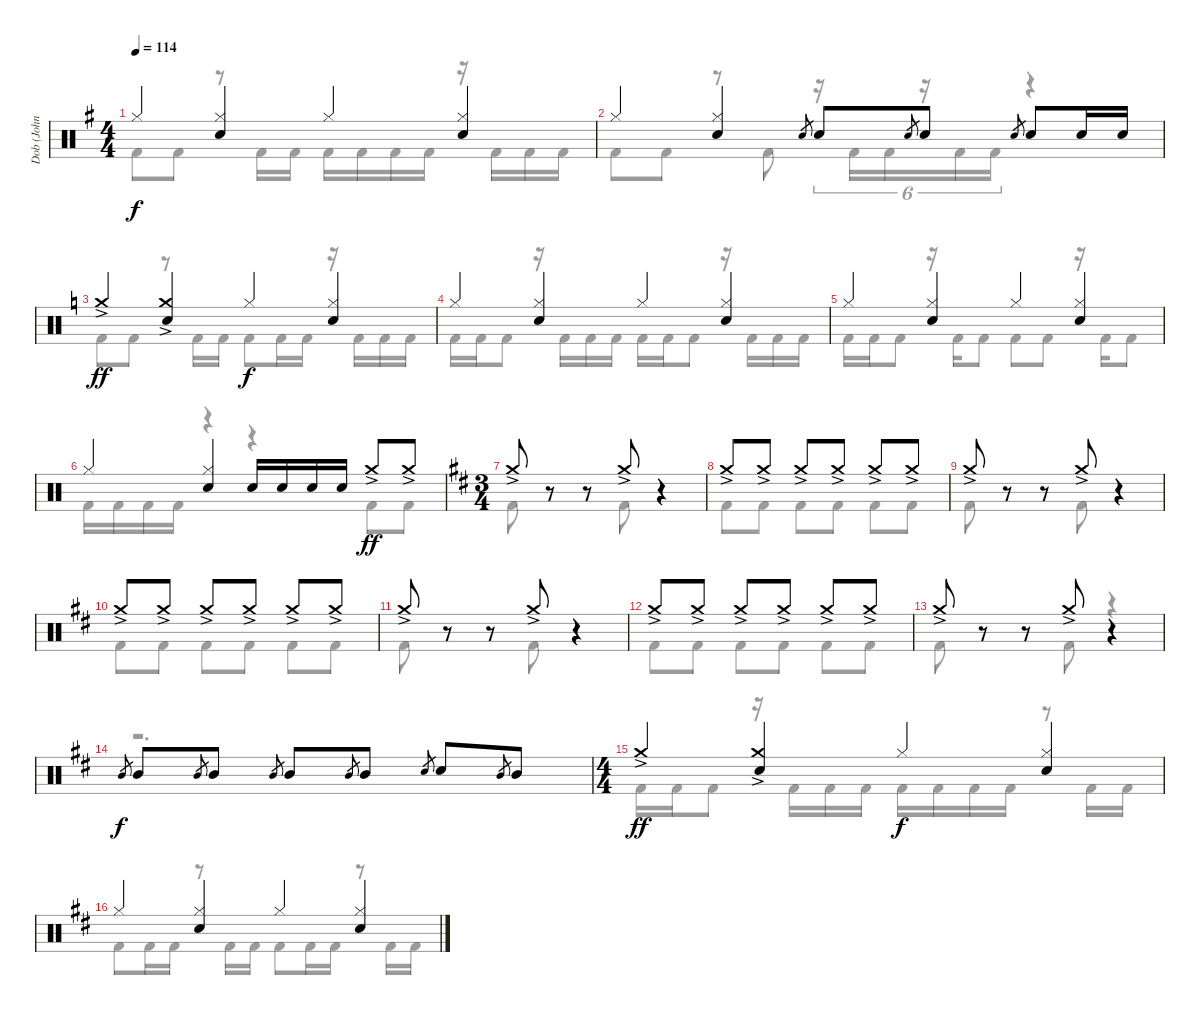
\track ("Dob (John Macaluso)" "Dob (John ") {instrument percussion}
\staff {score}
\articulation defaults
\voice
\ts (4 4)
\tempo 114
\clef neutral
\ks g "Hi-Hat (closed)".4{dy f}
("Hi-Hat (closed)" "Electric Snare (hit)").4 "Hi-Hat (closed)".4 ("Hi-Hat (closed)" "Electric Snare (hit)").4 |
"Hi-Hat (closed)".4 ("Hi-Hat (closed)" "Electric Snare (hit)").4 "Electric Snare (hit)".8{gr} "Electric Snare (hit)".8 "Electric Snare (hit)".8{gr} "Electric Snare (hit)".8 "Electric Snare (hit)".8{gr} "Electric Snare (hit)".8 "Electric Snare (hit)".16 "Electric Snare (hit)".16 |
\ks c "Crash medium (hit)"{ac}.4{dy ff}
("Crash medium (hit)"{ac} "Electric Snare (hit)").4 "Hi-Hat (closed)".4{dy f} ("Hi-Hat (closed)" "Electric Snare (hit)").4 |
"Hi-Hat (closed)".4 ("Hi-Hat (closed)" "Electric Snare (hit)").4 "Hi-Hat (closed)".4 ("Hi-Hat (closed)" "Electric Snare (hit)").4 |
"Hi-Hat (closed)".4 ("Hi-Hat (closed)" "Electric Snare (hit)").4 "Hi-Hat (closed)".4 ("Hi-Hat (closed)" "Electric Snare (hit)").4 |
"Hi-Hat (closed)".4 ("Hi-Hat (closed)" "Electric Snare (hit)").4 "Electric Snare (hit)".16 "Electric Snare (hit)".16 "Electric Snare (hit)".16 "Electric Snare (hit)".16 "Crash medium (hit)"{ac}.8{dy ff} "Crash medium (hit)"{ac}.8 |
\ts (3 4)
\ks d "Crash medium (hit)"{ac}.8
r.8 r.8 "Crash medium (hit)"{ac}.8 r.4 |
"Crash medium (hit)"{ac}.8 "Crash medium (hit)"{ac}.8 "Crash medium (hit)"{ac}.8 "Crash medium (hit)"{ac}.8 "Crash medium (hit)"{ac}.8 "Crash medium (hit)"{ac}.8 |
"Crash medium (hit)"{ac}.8 r.8 r.8 "Crash medium (hit)"{ac}.8 r.4 |
"Crash medium (hit)"{ac}.8 "Crash medium (hit)"{ac}.8 "Crash medium (hit)"{ac}.8 "Crash medium (hit)"{ac}.8 "Crash medium (hit)"{ac}.8 "Crash medium (hit)"{ac}.8 |
"Crash medium (hit)"{ac}.8 r.8 r.8 "Crash medium (hit)"{ac}.8 r.4 |
"Crash medium (hit)"{ac}.8 "Crash medium (hit)"{ac}.8 "Crash medium (hit)"{ac}.8 "Crash medium (hit)"{ac}.8 "Crash medium (hit)"{ac}.8 "Crash medium (hit)"{ac}.8 |
"Crash medium (hit)"{ac}.8 r.8 r.8 "Crash medium (hit)"{ac}.8 r.4 |
"Mid Tom (hit)".8{gr dy f} "Mid Tom (hit)".8 "Mid Tom (hit)".8{gr} "Mid Tom (hit)".8 "Mid Tom (hit)".8{gr} "Mid Tom (hit)".8 "Mid Tom (hit)".8{gr} "Mid Tom (hit)".8 "Electric Snare (hit)".8{gr} "Electric Snare (hit)".8 "Mid Tom (hit)".8{gr} "Mid Tom (hit)".8 |
\ts (4 4)
"Crash medium (hit)"{ac}.4{dy ff} ("Crash medium (hit)"{ac} "Electric Snare (hit)").4 "Hi-Hat (closed)".4{dy f} ("Hi-Hat (closed)" "Electric Snare (hit)").4 |
"Hi-Hat (closed)".4 ("Hi-Hat (closed)" "Electric Snare (hit)").4 "Hi-Hat (closed)".4 ("Hi-Hat (closed)" "Electric Snare (hit)").4
\voice
\clef neutral
\ottava regular
\simile none
\ks g "Kick (hit) 2".8{dy f} "Kick (hit) 2".8
r.8 "Kick (hit) 2".16 "Kick (hit) 2".16 "Kick (hit) 2".16 "Kick (hit) 2".16 "Kick (hit) 2".16 "Kick (hit) 2".16 r.16 "Kick (hit) 2".16 "Kick (hit) 2".16 "Kick (hit) 2".16 |
"Kick (hit) 2".8 "Kick (hit) 2".8 r.8 "Kick (hit) 2".8 r.16{tu (6 4)} "Kick (hit) 2".16{tu (6 4)} "Kick (hit) 2".16{tu (6 4)} r.16{tu (6 4)} "Kick (hit) 2".16{tu (6 4)} "Kick (hit) 2".16{tu (6 4)} r.4 |
\ks c "Kick (hit) 2".8 "Kick (hit) 2".8
r.8 "Kick (hit) 2".16 "Kick (hit) 2".16 "Kick (hit) 2".8 "Kick (hit) 2".16 "Kick (hit) 2".16 r.16 "Kick (hit) 2".16 "Kick (hit) 2".16 "Kick (hit) 2".16 |
"Kick (hit) 2".16 "Kick (hit) 2".16 "Kick (hit) 2".8 r.16 "Kick (hit) 2".16 "Kick (hit) 2".16 "Kick (hit) 2".16 "Kick (hit) 2".16 "Kick (hit) 2".16 "Kick (hit) 2".8 r.16 "Kick (hit) 2".16 "Kick (hit) 2".16 "Kick (hit) 2".16 |
"Kick (hit) 2".16 "Kick (hit) 2".16 "Kick (hit) 2".8 r.16 "Kick (hit) 2".16 "Kick (hit) 2".8 "Kick (hit) 2".8 "Kick (hit) 2".8 r.16 "Kick (hit) 2".16 "Kick (hit) 2".8 |
"Kick (hit) 2".16 "Kick (hit) 2".16 "Kick (hit) 2".16 "Kick (hit) 2".16 r.4 r.4 "Kick (hit) 2".8 "Kick (hit) 2".8 |
\ks d "Kick (hit) 2".8
r.8 r.8 "Kick (hit) 2".8 r.4 |
"Kick (hit) 2".8 "Kick (hit) 2".8 "Kick (hit) 2".8 "Kick (hit) 2".8 "Kick (hit) 2".8 "Kick (hit) 2".8 |
"Kick (hit) 2".8 r.8 r.8 "Kick (hit) 2".8 r.4 |
"Kick (hit) 2".8 "Kick (hit) 2".8 "Kick (hit) 2".8 "Kick (hit) 2".8 "Kick (hit) 2".8 "Kick (hit) 2".8 |
"Kick (hit) 2".8 r.8 r.8 "Kick (hit) 2".8 r.4 |
"Kick (hit) 2".8 "Kick (hit) 2".8 "Kick (hit) 2".8 "Kick (hit) 2".8 "Kick (hit) 2".8 "Kick (hit) 2".8 |
"Kick (hit) 2".8 r.8 r.8 "Kick (hit) 2".8 r.4 |
r.2{d} |
"Kick (hit) 2".16 "Kick (hit) 2".16 "Kick (hit) 2".8 r.16 "Kick (hit) 2".16 "Kick (hit) 2".16 "Kick (hit) 2".16 "Kick (hit) 2".16 "Kick (hit) 2".16 "Kick (hit) 2".16 "Kick (hit) 2".16 r.8 "Kick (hit) 2".16 "Kick (hit) 2".16 |
"Kick (hit) 2".8 "Kick (hit) 2".16 "Kick (hit) 2".16 r.8 "Kick (hit) 2".16 "Kick (hit) 2".16 "Kick (hit) 2".8 "Kick (hit) 2".16 "Kick (hit) 2".16 r.8 "Kick (hit) 2".16 "Kick (hit) 2".16
